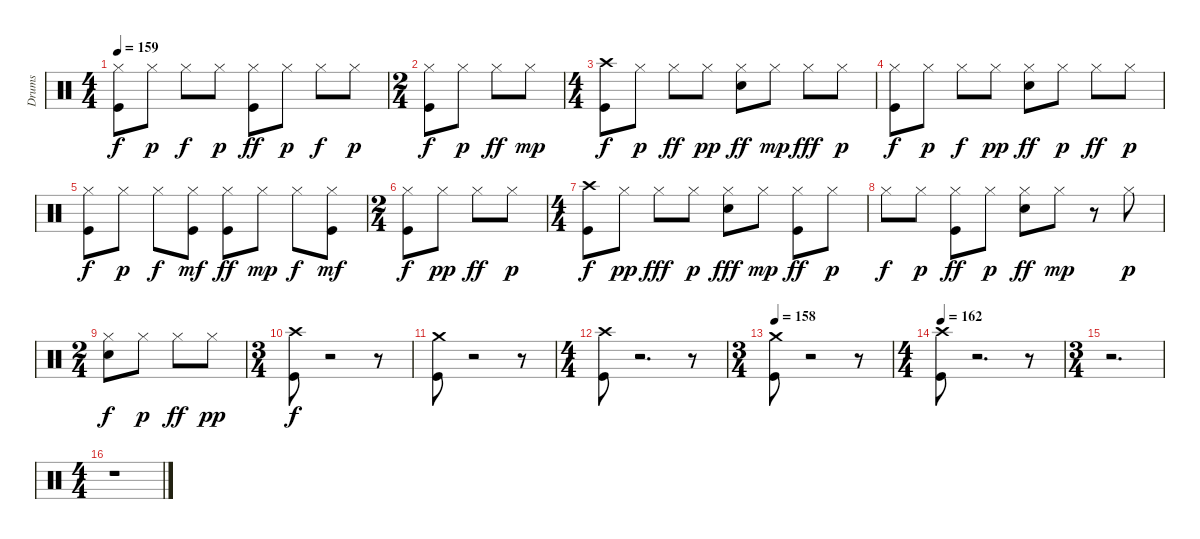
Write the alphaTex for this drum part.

\track ("Drums" "Drums") {instrument percussion}
\staff {score}
\articulation defaults
\ts (4 4)
\tempo 159
\clef neutral
\ks c
("Kick (hit)" "Hi-Hat (closed)").8{dy f} "Hi-Hat (closed)".8{dy p} "Hi-Hat (closed)".8{dy f} "Hi-Hat (closed)".8{dy p} ("Kick (hit)" "Hi-Hat (closed)").8{dy ff} "Hi-Hat (closed)".8{dy p} "Hi-Hat (closed)".8{dy f} "Hi-Hat (closed)".8{dy p} |
\ts (2 4)
("Kick (hit)" "Hi-Hat (closed)").8{dy f} "Hi-Hat (closed)".8{dy p} "Hi-Hat (closed)".8{dy ff} "Hi-Hat (closed)".8{dy mp} |
\ts (4 4)
("Kick (hit)" "Crash high (hit)").8{dy f} "Hi-Hat (closed)".8{dy p} "Hi-Hat (closed)".8{dy ff} "Hi-Hat (closed)".8{dy pp} ("Electric Snare (hit)" "Hi-Hat (closed)").8{dy ff} "Hi-Hat (closed)".8{dy mp} "Hi-Hat (closed)".8{dy fff} "Hi-Hat (closed)".8{dy p} |
("Kick (hit)" "Hi-Hat (closed)").8{dy f} "Hi-Hat (closed)".8{dy p} "Hi-Hat (closed)".8{dy f} "Hi-Hat (closed)".8{dy pp} ("Electric Snare (hit)" "Hi-Hat (closed)").8{dy ff} "Hi-Hat (closed)".8{dy p} "Hi-Hat (closed)".8{dy ff} "Hi-Hat (closed)".8{dy p} |
("Kick (hit)" "Hi-Hat (closed)").8{dy f} "Hi-Hat (closed)".8{dy p} "Hi-Hat (closed)".8{dy f} ("Kick (hit)" "Hi-Hat (closed)").8{dy mf} ("Kick (hit)" "Hi-Hat (closed)").8{dy ff} "Hi-Hat (closed)".8{dy mp} "Hi-Hat (closed)".8{dy f} ("Kick (hit)" "Hi-Hat (closed)").8{dy mf} |
\ts (2 4)
("Kick (hit)" "Hi-Hat (closed)").8{dy f} "Hi-Hat (closed)".8{dy pp} "Hi-Hat (closed)".8{dy ff} "Hi-Hat (closed)".8{dy p} |
\ts (4 4)
("Kick (hit)" "Crash high (hit)").8{dy f} "Hi-Hat (closed)".8{dy pp} "Hi-Hat (closed)".8{dy fff} "Hi-Hat (closed)".8{dy p} ("Electric Snare (hit)" "Hi-Hat (closed)").8{dy fff} "Hi-Hat (closed)".8{dy mp} ("Kick (hit)" "Hi-Hat (closed)").8{dy ff} "Hi-Hat (closed)".8{dy p} |
"Hi-Hat (closed)".8{dy f} "Hi-Hat (closed)".8{dy p} ("Kick (hit)" "Hi-Hat (closed)").8{dy ff} "Hi-Hat (closed)".8{dy p} ("Electric Snare (hit)" "Hi-Hat (closed)").8{dy ff} "Hi-Hat (closed)".8{dy mp} r.8 "Hi-Hat (closed)".8{dy p} |
\ts (2 4)
("Electric Snare (hit)" "Hi-Hat (closed)").8{dy f} "Hi-Hat (closed)".8{dy p} "Hi-Hat (closed)".8{dy ff} "Hi-Hat (closed)".8{dy pp} |
\ts (3 4)
("Kick (hit)" "Crash high (hit)").8{dy f} r.2 r.8 |
("Kick (hit)" "Crash medium (hit)").8 r.2 r.8 |
\ts (4 4)
("Kick (hit)" "Crash high (hit)").8 r.2{d} r.8 |
\ts (3 4)
\tempo 158
("Kick (hit)" "Crash medium (hit)").8 r.2 r.8 |
\ts (4 4)
\tempo 162
("Kick (hit)" "Crash high (hit)").8 r.2{d} r.8 |
\ts (3 4)
r.2{d} |
\ts (4 4)
r.1
